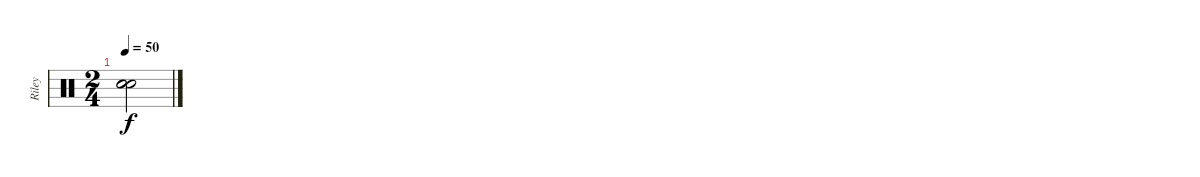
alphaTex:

\track ("Riley" "Riley") {instrument percussion}
\staff {score}
\articulation defaults
\ts (2 4)
\tempo 50
\clef neutral
\ks c
("Snare (hit)"{t} "Snare (hit)"{t} "Snare (hit)"{t}).2{dy f}
